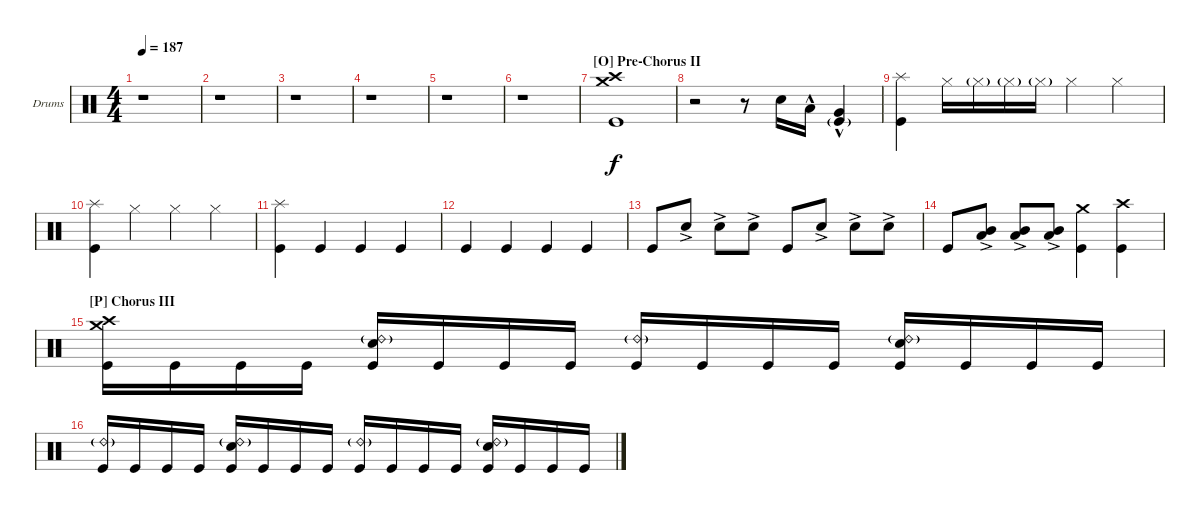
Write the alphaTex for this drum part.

\defaultSystemsLayout 4
\bracketExtendMode groupsimilarinstruments
\firstSystemTrackNameOrientation horizontal
\otherSystemsTrackNameOrientation horizontal
\track ("Drumkit" "Drums") {instrument percussion}
\staff {score}
\articulation defaults
\ts (4 4)
\tempo 187
\clef neutral
\ks c
r.1{dy f} |
r.1 |
r.1 |
r.1 |
r.1 |
r.1 |
\section ("O" "Pre-Chorus II")
("Kick (hit)" "Crash medium (hit)" "Crash high (hit)").1 |
r.2 r.8 "Snare (hit) 2".16 "Low Tom (hit)"{hac}.16 ("Very Low Tom (hit)"{hac} "Kick (hit)"{g}).4 |
("Kick (hit)" "Splash (hit)").4 "Hi-Hat (closed)".16 "Hi-Hat (closed)"{g}.16 "Hi-Hat (closed)"{g}.16 "Hi-Hat (closed)"{g}.16 "Hi-Hat (closed)".4 "Hi-Hat (closed)".4 |
("Kick (hit)" "Splash (hit)").4 "Hi-Hat (closed)".4 "Hi-Hat (closed)".4 "Hi-Hat (closed)".4 |
("Kick (hit)" "Splash (hit)").4 "Kick (hit)".4 "Kick (hit)".4 "Kick (hit)".4 |
"Kick (hit)".4 "Kick (hit)".4 "Kick (hit)".4 "Kick (hit)".4 |
"Kick (hit)".8 "Snare (hit) 2"{ac}.8 "Snare (hit) 2"{ac}.8 "Snare (hit) 2"{ac}.8 "Kick (hit)".8 "Snare (hit) 2"{ac}.8 "Snare (hit) 2"{ac}.8 "Snare (hit) 2"{ac}.8 |
"Kick (hit)".8 ("Low Tom (hit)"{ac} "Mid Tom (hit)").8 ("Low Tom (hit)"{ac} "Mid Tom (hit)").8 ("Low Tom (hit)"{ac} "Mid Tom (hit)").8 ("Kick (hit)" "Crash medium (hit)").4 ("Kick (hit)" "Crash high (hit)").4 |
\section ("P" "Chorus III")
("Crash medium (hit)" "Crash high (hit)" "Kick (hit)").16 "Kick (hit)".16 "Kick (hit)".16 "Kick (hit)".16 ("Snare (hit) 2" "Ride (bell) 2"{g} "Kick (hit)").16 "Kick (hit)".16 "Kick (hit)".16 "Kick (hit)".16 ("Kick (hit)" "Ride (bell) 2"{g}).16 "Kick (hit)".16 "Kick (hit)".16 "Kick (hit)".16 ("Snare (hit) 2" "Ride (bell) 2"{g} "Kick (hit)").16 "Kick (hit)".16 "Kick (hit)".16 "Kick (hit)".16 |
("Kick (hit)" "Ride (bell) 2"{g}).16 "Kick (hit)".16 "Kick (hit)".16 "Kick (hit)".16 ("Snare (hit) 2" "Ride (bell) 2"{g} "Kick (hit)").16 "Kick (hit)".16 "Kick (hit)".16 "Kick (hit)".16 ("Kick (hit)" "Ride (bell) 2"{g}).16 "Kick (hit)".16 "Kick (hit)".16 "Kick (hit)".16 ("Snare (hit) 2" "Ride (bell) 2"{g} "Kick (hit)").16 "Kick (hit)".16 "Kick (hit)".16 "Kick (hit)".16
